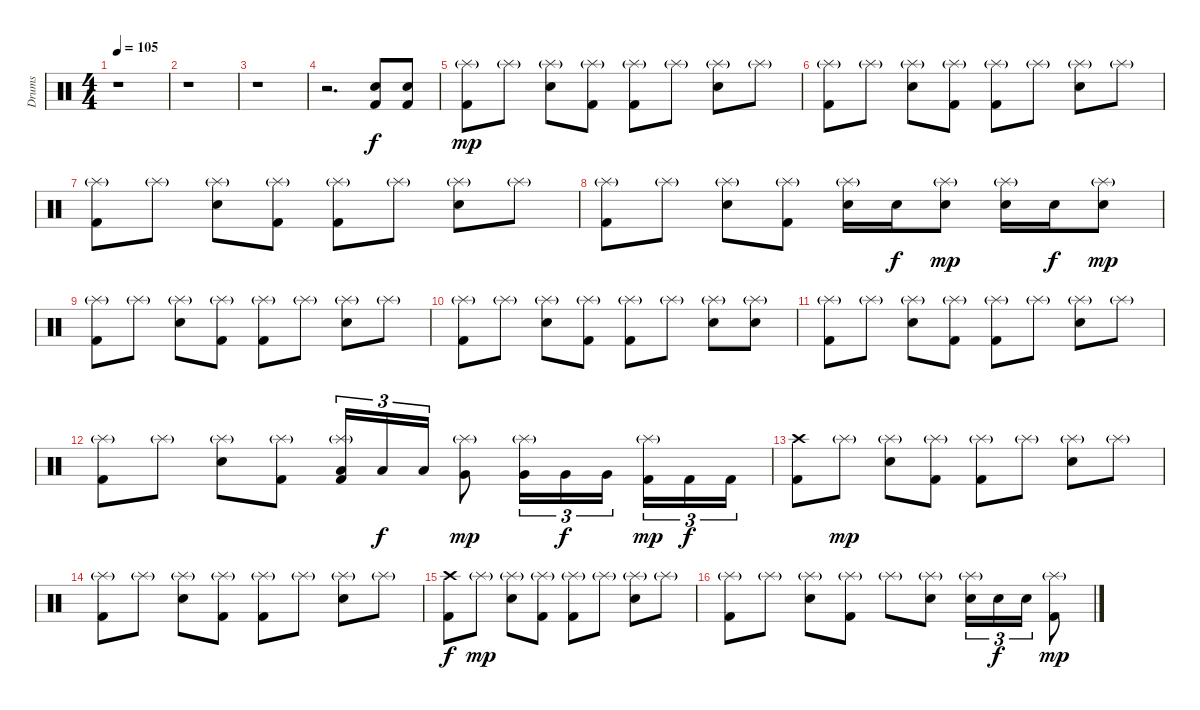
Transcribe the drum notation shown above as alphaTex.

\track ("Drums" "Drums") {instrument percussion}
\staff {score}
\articulation defaults
\ts (4 4)
\tempo 105
\clef neutral
\ks c
r.1{dy f} |
r.1 |
r.1 |
r.2{d} ("Snare (hit) 2" "Kick (hit) 2").8 ("Snare (hit) 2" "Kick (hit) 2").8 |
("Splash (hit)"{g} "Kick (hit) 2").8{dy mp} "Splash (hit)"{g}.8 ("Splash (hit)"{g} "Snare (hit) 2").8 ("Splash (hit)"{g} "Kick (hit) 2").8 ("Splash (hit)"{g} "Kick (hit) 2").8 "Splash (hit)"{g}.8 ("Splash (hit)"{g} "Snare (hit) 2").8 "Splash (hit)"{g}.8 |
("Splash (hit)"{g} "Kick (hit) 2").8 "Splash (hit)"{g}.8 ("Splash (hit)"{g} "Snare (hit) 2").8 ("Splash (hit)"{g} "Kick (hit) 2").8 ("Splash (hit)"{g} "Kick (hit) 2").8 "Splash (hit)"{g}.8 ("Splash (hit)"{g} "Snare (hit) 2").8 "Splash (hit)"{g}.8 |
("Splash (hit)"{g} "Kick (hit) 2").8 "Splash (hit)"{g}.8 ("Splash (hit)"{g} "Snare (hit) 2").8 ("Splash (hit)"{g} "Kick (hit) 2").8 ("Splash (hit)"{g} "Kick (hit) 2").8 "Splash (hit)"{g}.8 ("Splash (hit)"{g} "Snare (hit) 2").8 "Splash (hit)"{g}.8 |
("Splash (hit)"{g} "Kick (hit) 2").8 "Splash (hit)"{g}.8 ("Splash (hit)"{g} "Snare (hit) 2").8 ("Splash (hit)"{g} "Kick (hit) 2").8 ("Splash (hit)"{g} "Snare (hit) 2").16 "Snare (hit) 2".16{dy f} ("Splash (hit)"{g} "Snare (hit) 2").8{dy mp} ("Splash (hit)"{g} "Snare (hit) 2").16 "Snare (hit) 2".16{dy f} ("Splash (hit)"{g} "Snare (hit) 2").8{dy mp} |
("Splash (hit)"{g} "Kick (hit) 2").8 "Splash (hit)"{g}.8 ("Splash (hit)"{g} "Snare (hit) 2").8 ("Splash (hit)"{g} "Kick (hit) 2").8 ("Splash (hit)"{g} "Kick (hit) 2").8 "Splash (hit)"{g}.8 ("Splash (hit)"{g} "Snare (hit) 2").8 "Splash (hit)"{g}.8 |
("Splash (hit)"{g} "Kick (hit) 2").8 "Splash (hit)"{g}.8 ("Splash (hit)"{g} "Snare (hit) 2").8 ("Splash (hit)"{g} "Kick (hit) 2").8 ("Splash (hit)"{g} "Kick (hit) 2").8 "Splash (hit)"{g}.8 ("Splash (hit)"{g} "Snare (hit) 2").8 ("Splash (hit)"{g} "Snare (hit) 2").8 |
("Splash (hit)"{g} "Kick (hit) 2").8 "Splash (hit)"{g}.8 ("Splash (hit)"{g} "Snare (hit) 2").8 ("Splash (hit)"{g} "Kick (hit) 2").8 ("Splash (hit)"{g} "Kick (hit) 2").8 "Splash (hit)"{g}.8 ("Splash (hit)"{g} "Snare (hit) 2").8 "Splash (hit)"{g}.8 |
("Splash (hit)"{g} "Kick (hit) 2").8 "Splash (hit)"{g}.8 ("Splash (hit)"{g} "Snare (hit) 2").8 ("Splash (hit)"{g} "Kick (hit) 2").8 ("Splash (hit)"{g} "Low Tom (hit)" "Kick (hit) 2").16{tu (3 2)} "Low Tom (hit)".16{tu (3 2) dy f} "Low Tom (hit)".16{tu (3 2)} ("Splash (hit)"{g} "Very Low Tom (hit)").8{dy mp} ("Splash (hit)"{g} "Very Low Tom (hit)").16{tu (3 2)} "Very Low Tom (hit)".16{tu (3 2) dy f} "Very Low Tom (hit)".16{tu (3 2) beam splitsecondary} ("Splash (hit)"{g} "Kick (hit) 2").16{tu (3 2) dy mp} "Kick (hit) 2".16{tu (3 2) dy f} "Kick (hit) 2".16{tu (3 2)} |
("Crash high (hit)" "Kick (hit) 2").8 "Splash (hit)"{g}.8{dy mp} ("Splash (hit)"{g} "Snare (hit) 2").8 ("Splash (hit)"{g} "Kick (hit) 2").8 ("Splash (hit)"{g} "Kick (hit) 2").8 "Splash (hit)"{g}.8 ("Splash (hit)"{g} "Snare (hit) 2").8 "Splash (hit)"{g}.8 |
("Splash (hit)"{g} "Kick (hit) 2").8 "Splash (hit)"{g}.8 ("Splash (hit)"{g} "Snare (hit) 2").8 ("Splash (hit)"{g} "Kick (hit) 2").8 ("Splash (hit)"{g} "Kick (hit) 2").8 "Splash (hit)"{g}.8 ("Splash (hit)"{g} "Snare (hit) 2").8 "Splash (hit)"{g}.8 |
("Crash high (hit)" "Kick (hit) 2").8{dy f} "Splash (hit)"{g}.8{dy mp} ("Splash (hit)"{g} "Snare (hit) 2").8 ("Splash (hit)"{g} "Kick (hit) 2").8 ("Splash (hit)"{g} "Kick (hit) 2").8 "Splash (hit)"{g}.8 ("Splash (hit)"{g} "Snare (hit) 2").8 "Splash (hit)"{g}.8 |
("Splash (hit)"{g} "Kick (hit) 2").8 "Splash (hit)"{g}.8 ("Splash (hit)"{g} "Snare (hit) 2").8 ("Splash (hit)"{g} "Kick (hit) 2").8 "Splash (hit)"{g}.8 ("Splash (hit)"{g} "Snare (hit) 2").8 ("Splash (hit)"{g} "Snare (hit) 2").16{tu (3 2)} "Snare (hit) 2".16{tu (3 2) dy f} "Snare (hit) 2".16{tu (3 2)} ("Splash (hit)"{g} "Kick (hit) 2").8{dy mp}
